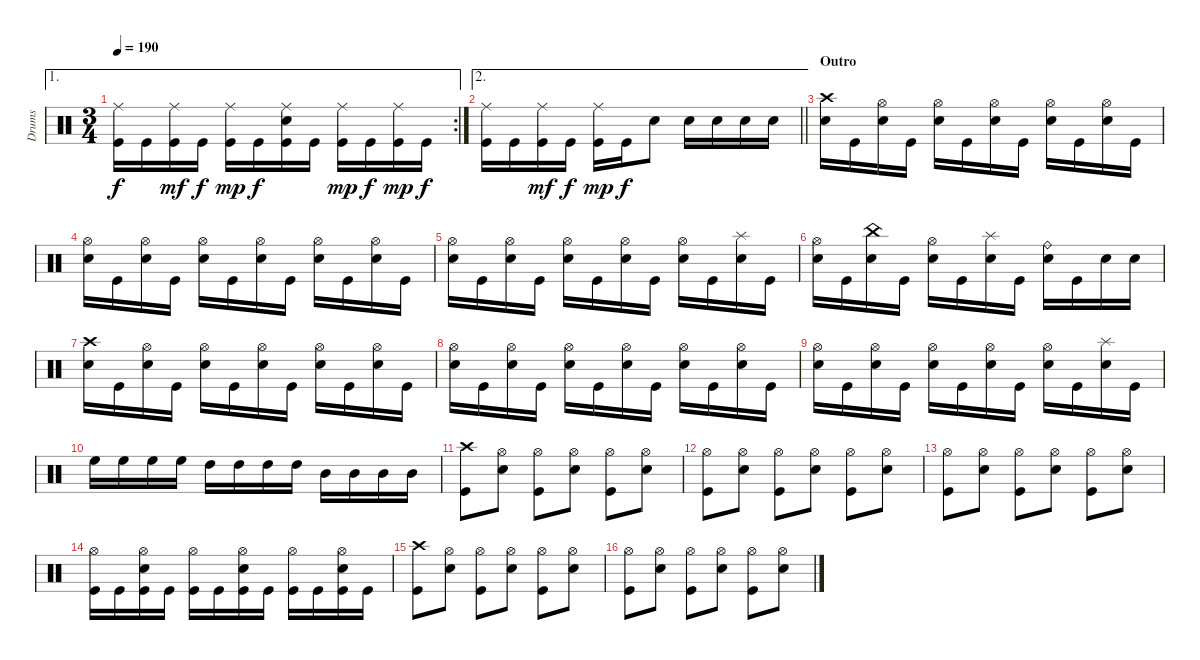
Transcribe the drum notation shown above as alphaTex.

\track ("Drums" "Drums") {instrument percussion}
\staff {score}
\articulation defaults
\ae 1
\rc 2
\ts (3 4)
\tempo 190
\clef neutral
\ks c
("Ride (middle)" "Kick (hit)").16{dy f} "Kick (hit)".16 ("Ride (middle)" "Kick (hit)").16{dy mf} "Kick (hit)".16{dy f} ("Ride (middle)" "Kick (hit)").16{dy mp} "Kick (hit)".16{dy f} ("Ride (middle)" "Electric Snare (hit)" "Kick (hit)").16 "Kick (hit)".16 ("Ride (middle)" "Kick (hit)").16{dy mp} "Kick (hit)".16{dy f} ("Ride (middle)" "Kick (hit)").16{dy mp} "Kick (hit)".16{dy f} |
\ae 2
\barLineRight lightlight
("Ride (middle)" "Kick (hit)").16 "Kick (hit)".16 ("Ride (middle)" "Kick (hit)").16{dy mf} "Kick (hit)".16{dy f} ("Ride (middle)" "Kick (hit)").16{dy mp} "Kick (hit)".16{dy f} "Electric Snare (hit)".8 "Electric Snare (hit)".16 "Electric Snare (hit)".16 "Electric Snare (hit)".16 "Electric Snare (hit)".16 |
\section ("" "Outro")
("Crash high (hit)" "Snare (hit) 2").16 "Kick (hit)".16 ("Hi-Hat (open)" "Snare (hit) 2").16 "Kick (hit)".16 ("Hi-Hat (open)" "Snare (hit) 2").16 "Kick (hit)".16 ("Hi-Hat (open)" "Snare (hit) 2").16 "Kick (hit)".16 ("Hi-Hat (open)" "Snare (hit) 2").16 "Kick (hit)".16 ("Hi-Hat (open)" "Snare (hit) 2").16 "Kick (hit)".16 |
("Hi-Hat (open)" "Snare (hit) 2").16 "Kick (hit)".16 ("Hi-Hat (open)" "Snare (hit) 2").16 "Kick (hit)".16 ("Hi-Hat (open)" "Snare (hit) 2").16 "Kick (hit)".16 ("Hi-Hat (open)" "Snare (hit) 2").16 "Kick (hit)".16 ("Hi-Hat (open)" "Snare (hit) 2").16 "Kick (hit)".16 ("Hi-Hat (open)" "Snare (hit) 2").16 "Kick (hit)".16 |
("Hi-Hat (open)" "Snare (hit) 2").16 "Kick (hit)".16 ("Hi-Hat (open)" "Snare (hit) 2").16 "Kick (hit)".16 ("Hi-Hat (open)" "Snare (hit) 2").16 "Kick (hit)".16 ("Hi-Hat (open)" "Snare (hit) 2").16 "Kick (hit)".16 ("Hi-Hat (open)" "Snare (hit) 2").16 "Kick (hit)".16 ("Splash (hit)" "Snare (hit) 2").16 "Kick (hit)".16 |
("Hi-Hat (open)" "Snare (hit) 2").16 "Kick (hit)".16 ("China (hit)" "Snare (hit) 2").16 "Kick (hit)".16 ("Hi-Hat (open)" "Snare (hit) 2").16 "Kick (hit)".16 ("Splash (hit)" "Snare (hit) 2").16 "Kick (hit)".16 ("Ride (bell)" "Snare (hit) 2").16 "Kick (hit)".16 "Snare (hit) 2".16 "Snare (hit) 2".16 |
("Crash high (hit)" "Snare (hit) 2").16 "Kick (hit)".16 ("Hi-Hat (open)" "Snare (hit) 2").16 "Kick (hit)".16 ("Hi-Hat (open)" "Snare (hit) 2").16 "Kick (hit)".16 ("Hi-Hat (open)" "Snare (hit) 2").16 "Kick (hit)".16 ("Hi-Hat (open)" "Snare (hit) 2").16 "Kick (hit)".16 ("Hi-Hat (open)" "Snare (hit) 2").16 "Kick (hit)".16 |
("Hi-Hat (open)" "Snare (hit) 2").16 "Kick (hit)".16 ("Hi-Hat (open)" "Snare (hit) 2").16 "Kick (hit)".16 ("Hi-Hat (open)" "Snare (hit) 2").16 "Kick (hit)".16 ("Hi-Hat (open)" "Snare (hit) 2").16 "Kick (hit)".16 ("Hi-Hat (open)" "Snare (hit) 2").16 "Kick (hit)".16 ("Hi-Hat (open)" "Snare (hit) 2").16 "Kick (hit)".16 |
("Hi-Hat (open)" "Snare (hit) 2").16 "Kick (hit)".16 ("Hi-Hat (open)" "Snare (hit) 2").16 "Kick (hit)".16 ("Hi-Hat (open)" "Snare (hit) 2").16 "Kick (hit)".16 ("Hi-Hat (open)" "Snare (hit) 2").16 "Kick (hit)".16 ("Hi-Hat (open)" "Snare (hit) 2").16 "Kick (hit)".16 ("Splash (hit)" "Snare (hit) 2").16 "Kick (hit)".16 |
"High Floor Tom (hit)".16 "High Floor Tom (hit)".16 "High Floor Tom (hit)".16 "High Floor Tom (hit)".16 "High Tom (hit)".16 "High Tom (hit)".16 "High Tom (hit)".16 "High Tom (hit)".16 "Mid Tom (hit)".16 "Mid Tom (hit)".16 "Mid Tom (hit)".16 "Mid Tom (hit)".16 |
("Crash high (hit)" "Kick (hit)").8 ("Hi-Hat (open)" "Electric Snare (hit)").8 ("Hi-Hat (open)" "Kick (hit)").8 ("Hi-Hat (open)" "Electric Snare (hit)").8 ("Hi-Hat (open)" "Kick (hit)").8 ("Hi-Hat (open)" "Electric Snare (hit)").8 |
("Hi-Hat (open)" "Kick (hit)").8 ("Hi-Hat (open)" "Electric Snare (hit)").8 ("Hi-Hat (open)" "Kick (hit)").8 ("Hi-Hat (open)" "Electric Snare (hit)").8 ("Hi-Hat (open)" "Kick (hit)").8 ("Hi-Hat (open)" "Electric Snare (hit)").8 |
("Hi-Hat (open)" "Kick (hit)").8 ("Hi-Hat (open)" "Electric Snare (hit)").8 ("Hi-Hat (open)" "Kick (hit)").8 ("Hi-Hat (open)" "Electric Snare (hit)").8 ("Hi-Hat (open)" "Kick (hit)").8 ("Hi-Hat (open)" "Electric Snare (hit)").8 |
("Hi-Hat (open)" "Kick (hit)").16 "Kick (hit)".16 ("Hi-Hat (open)" "Electric Snare (hit)" "Kick (hit)").16 "Kick (hit)".16 ("Hi-Hat (open)" "Kick (hit)").16 "Kick (hit)".16 ("Hi-Hat (open)" "Electric Snare (hit)" "Kick (hit)").16 "Kick (hit)".16 ("Hi-Hat (open)" "Kick (hit)").16 "Kick (hit)".16 ("Hi-Hat (open)" "Electric Snare (hit)" "Kick (hit)").16 "Kick (hit)".16 |
("Crash high (hit)" "Kick (hit)").8 ("Hi-Hat (open)" "Electric Snare (hit)").8 ("Hi-Hat (open)" "Kick (hit)").8 ("Hi-Hat (open)" "Electric Snare (hit)").8 ("Hi-Hat (open)" "Kick (hit)").8 ("Hi-Hat (open)" "Electric Snare (hit)").8 |
("Hi-Hat (open)" "Kick (hit)").8 ("Hi-Hat (open)" "Electric Snare (hit)").8 ("Hi-Hat (open)" "Kick (hit)").8 ("Hi-Hat (open)" "Electric Snare (hit)").8 ("Hi-Hat (open)" "Kick (hit)").8 ("Hi-Hat (open)" "Electric Snare (hit)").8
